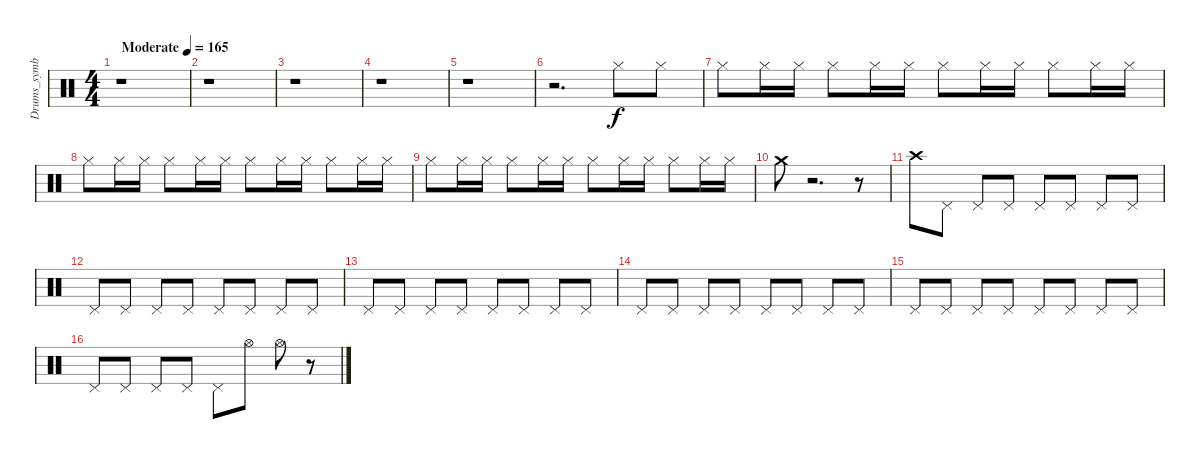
\track ("Drums_symbal" "Drums_symb") {instrument percussion}
\staff {score}
\articulation defaults
\ts (4 4)
\tempo (165 "Moderate")
\clef neutral
\ks c
r.1{dy f} |
r.1 |
r.1 |
r.1 |
r.1 |
r.2{d} "Hi-Hat (closed)".8 "Hi-Hat (closed)".8 |
"Hi-Hat (closed)".8 "Hi-Hat (closed)".16 "Hi-Hat (closed)".16 "Hi-Hat (closed)".8 "Hi-Hat (closed)".16 "Hi-Hat (closed)".16 "Hi-Hat (closed)".8 "Hi-Hat (closed)".16 "Hi-Hat (closed)".16 "Hi-Hat (closed)".8 "Hi-Hat (closed)".16 "Hi-Hat (closed)".16 |
"Hi-Hat (closed)".8 "Hi-Hat (closed)".16 "Hi-Hat (closed)".16 "Hi-Hat (closed)".8 "Hi-Hat (closed)".16 "Hi-Hat (closed)".16 "Hi-Hat (closed)".8 "Hi-Hat (closed)".16 "Hi-Hat (closed)".16 "Hi-Hat (closed)".8 "Hi-Hat (closed)".16 "Hi-Hat (closed)".16 |
"Hi-Hat (closed)".8 "Hi-Hat (closed)".16 "Hi-Hat (closed)".16 "Hi-Hat (closed)".8 "Hi-Hat (closed)".16 "Hi-Hat (closed)".16 "Hi-Hat (closed)".8 "Hi-Hat (closed)".16 "Hi-Hat (closed)".16 "Hi-Hat (closed)".8 "Hi-Hat (closed)".16 "Hi-Hat (closed)".16 |
"Crash medium (hit)".8 r.2{d} r.8 |
"Crash high (hit)".8 "Pedal Hi-Hat (hit)".8 "Pedal Hi-Hat (hit)".8 "Pedal Hi-Hat (hit)".8 "Pedal Hi-Hat (hit)".8 "Pedal Hi-Hat (hit)".8 "Pedal Hi-Hat (hit)".8 "Pedal Hi-Hat (hit)".8 |
"Pedal Hi-Hat (hit)".8 "Pedal Hi-Hat (hit)".8 "Pedal Hi-Hat (hit)".8 "Pedal Hi-Hat (hit)".8 "Pedal Hi-Hat (hit)".8 "Pedal Hi-Hat (hit)".8 "Pedal Hi-Hat (hit)".8 "Pedal Hi-Hat (hit)".8 |
"Pedal Hi-Hat (hit)".8 "Pedal Hi-Hat (hit)".8 "Pedal Hi-Hat (hit)".8 "Pedal Hi-Hat (hit)".8 "Pedal Hi-Hat (hit)".8 "Pedal Hi-Hat (hit)".8 "Pedal Hi-Hat (hit)".8 "Pedal Hi-Hat (hit)".8 |
"Pedal Hi-Hat (hit)".8 "Pedal Hi-Hat (hit)".8 "Pedal Hi-Hat (hit)".8 "Pedal Hi-Hat (hit)".8 "Pedal Hi-Hat (hit)".8 "Pedal Hi-Hat (hit)".8 "Pedal Hi-Hat (hit)".8 "Pedal Hi-Hat (hit)".8 |
"Pedal Hi-Hat (hit)".8 "Pedal Hi-Hat (hit)".8 "Pedal Hi-Hat (hit)".8 "Pedal Hi-Hat (hit)".8 "Pedal Hi-Hat (hit)".8 "Pedal Hi-Hat (hit)".8 "Pedal Hi-Hat (hit)".8 "Pedal Hi-Hat (hit)".8 |
"Pedal Hi-Hat (hit)".8 "Pedal Hi-Hat (hit)".8 "Pedal Hi-Hat (hit)".8 "Pedal Hi-Hat (hit)".8 "Pedal Hi-Hat (hit)".8 "Hi-Hat (open)".8 "Hi-Hat (open)".8 r.8
